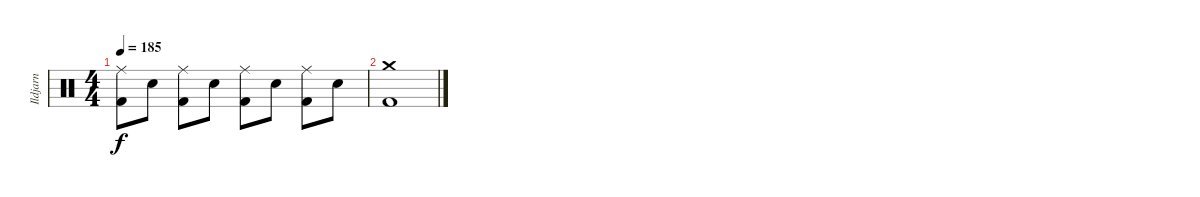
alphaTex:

\track ("Ildjarn" "Ildjarn") {instrument percussion}
\staff {score}
\articulation defaults
\ts (4 4)
\tempo 185
\clef neutral
\ks c
("Ride (middle)" "Kick (hit) 2").8{dy f} "Snare (hit) 2".8 ("Ride (middle)" "Kick (hit) 2").8 "Snare (hit) 2".8 ("Ride (middle)" "Kick (hit) 2").8 "Snare (hit) 2".8 ("Ride (middle)" "Kick (hit) 2").8 "Snare (hit) 2".8 |
("Crash medium (hit)" "Kick (hit) 2").1
